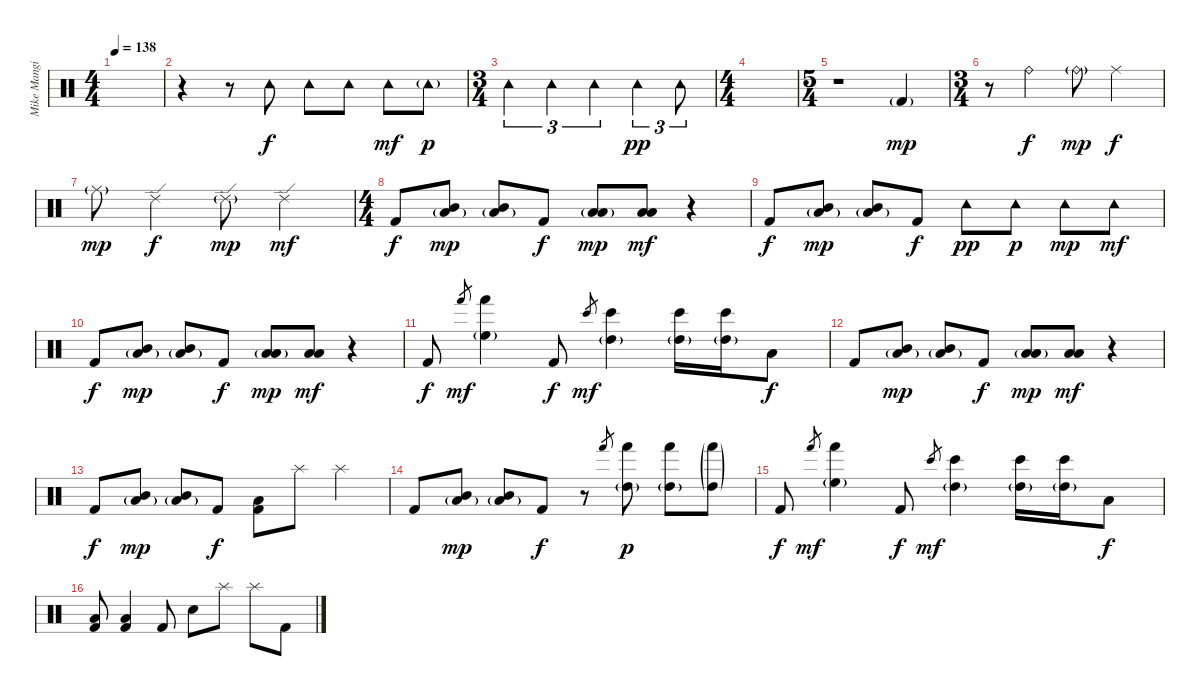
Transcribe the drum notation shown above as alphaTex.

\track ("Mike Mangini" "Mike Mangi") {instrument percussion}
\staff {score}
\articulation defaults
\ts (4 4)
\tempo 138
\clef neutral
\ks c
|
r.4 r.8 "Tambourine (hit)".8 "Tambourine (hit)".8 "Tambourine (hit)".8 "Tambourine (hit)".8{dy mf} "Tambourine (hit)"{g}.8{dy p} |
\ts (3 4)
"Tambourine (hit)".4{tu (3 2)} "Tambourine (hit)".4{tu (3 2)} "Tambourine (hit)".4{tu (3 2)} "Tambourine (hit)".4{tu (3 2) dy pp} "Tambourine (hit)".8{tu (3 2)} |
\ts (4 4)
|
\ts (5 4)
r.1 "Kick (hit) 2"{g}.4{dy mp} |
\ts (3 4)
r.8 "Ride (bell)".4{dy f} "Ride (bell)"{g}.8{dy mp} "Ride (middle)".4{dy f} |
"Ride (middle)"{g}.8{dy mp} "Ride (edge) 2".4{dy f} "Ride (edge) 2"{g}.8{dy mp} "Ride (edge) 2".4{dy mf} |
\ts (4 4)
"Kick (hit) 2".8{dy f} ("Mid Tom (hit)" "Low Tom (hit)"{g}).8{dy mp} ("Mid Tom (hit)" "Low Tom (hit)"{g}).8 "Kick (hit) 2".8{dy f} ("Low Tom (hit)" "Low Tom (hit)"{g}).8{dy mp} ("Low Tom (hit)" "Low Tom (hit)").8{dy mf} r.4 |
"Kick (hit) 2".8{dy f} ("Mid Tom (hit)" "Low Tom (hit)"{g}).8{dy mp} ("Mid Tom (hit)" "Low Tom (hit)"{g}).8 "Kick (hit) 2".8{dy f} "Tambourine (hit)".8{dy pp} "Tambourine (hit)".8{dy p} "Tambourine (hit)".8{dy mp} "Tambourine (hit)".8{dy mf} |
"Kick (hit) 2".8{dy f} ("Mid Tom (hit)" "Low Tom (hit)"{g}).8{dy mp} ("Mid Tom (hit)" "Low Tom (hit)"{g}).8 "Kick (hit) 2".8{dy f} ("Low Tom (hit)" "Low Tom (hit)"{g}).8{dy mp} ("Low Tom (hit)" "Low Tom (hit)").8{dy mf} r.4 |
"Kick (hit) 2".8{dy f} "Hand (hit)".8{gr dy mf} ("Hand (hit)" "High Floor Tom (hit)"{g}).4 "Kick (hit) 2".8{dy f} "Bongo High (hit)".8{gr dy mf} ("Bongo High (hit)" "High Tom (hit)"{g}).4 ("Bongo High (hit)" "High Tom (hit)"{g}).16 ("Bongo High (hit)" "High Tom (hit)"{g}).16 "Low Tom (hit)".8{dy f} |
"Kick (hit) 2".8 ("Mid Tom (hit)" "Low Tom (hit)"{g}).8{dy mp} ("Mid Tom (hit)" "Low Tom (hit)"{g}).8 "Kick (hit) 2".8{dy f} ("Low Tom (hit)" "Low Tom (hit)"{g}).8{dy mp} ("Low Tom (hit)" "Low Tom (hit)").8{dy mf} r.4 |
"Kick (hit) 2".8{dy f} ("Mid Tom (hit)" "Low Tom (hit)"{g}).8{dy mp} ("Mid Tom (hit)" "Low Tom (hit)"{g}).8 "Kick (hit) 2".8{dy f} ("Low Tom (hit)" "Kick (hit) 2").8 "Splash (hit)".8{balance 3} "Splash (hit)".4{balance 13} |
"Kick (hit) 2".8{balance 8} ("Mid Tom (hit)" "Low Tom (hit)"{g}).8{dy mp} ("Mid Tom (hit)" "Low Tom (hit)"{g}).8 "Kick (hit) 2".8{dy f} r.8 "Hand (hit)".8{gr} ("Hand (hit)" "High Tom (hit)"{g}).8{dy p} ("Hand (hit)" "High Tom (hit)"{g}).8 ("Hand (hit)"{g} "High Tom (hit)"{g}).8 |
"Kick (hit) 2".8{dy f} "Hand (hit)".8{gr dy mf} ("Hand (hit)" "High Floor Tom (hit)"{g}).4 "Kick (hit) 2".8{dy f} "Bongo High (hit)".8{gr dy mf} ("Bongo High (hit)" "High Tom (hit)"{g}).4 ("Bongo High (hit)" "High Tom (hit)"{g}).16 ("Bongo High (hit)" "High Tom (hit)"{g}).16 "Low Tom (hit)".8{dy f} |
("Low Tom (hit)" "Kick (hit) 2").8 ("Low Tom (hit)" "Kick (hit) 2").4 "Kick (hit) 2".8 "Electric Snare (hit)".8 "Splash (hit)".8{balance 3} "Splash (hit)".8{balance 13} "Kick (hit) 2".8{balance 8}
